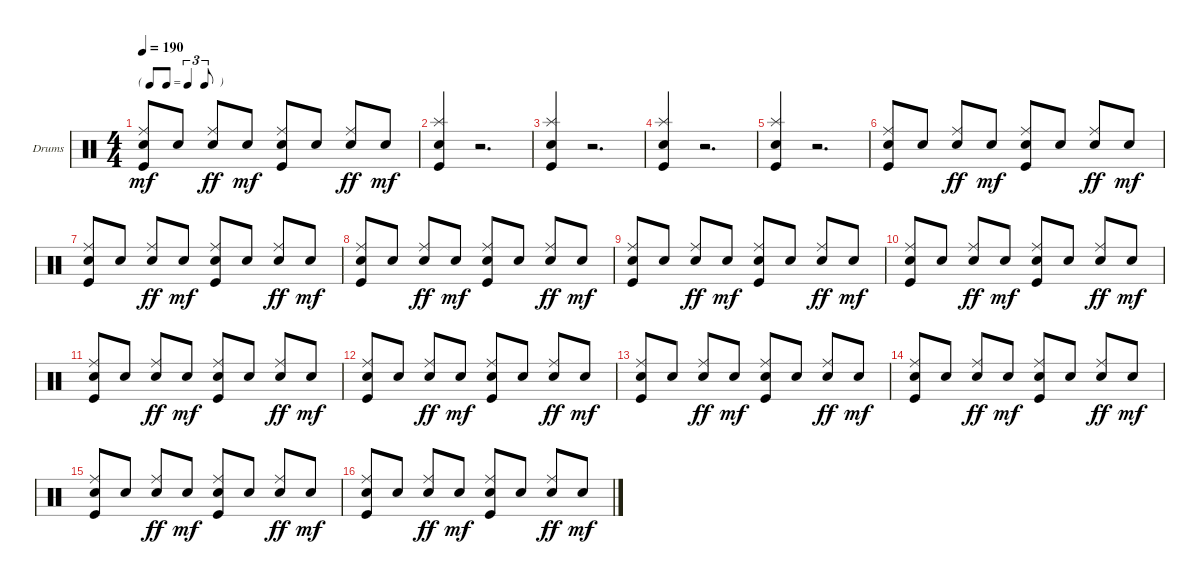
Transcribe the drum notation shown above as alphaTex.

\defaultSystemsLayout 4
\bracketExtendMode groupsimilarinstruments
\firstSystemTrackNameOrientation horizontal
\otherSystemsTrackNameOrientation horizontal
\track ("Drumkit" "Drums") {instrument percussion}
\staff {score}
\articulation defaults
\ts (4 4)
\tf triplet8th
\tempo 190
\clef neutral
\ks c
("Kick (hit)" "Snare (hit) 2" "Ride (middle)").8{dy mf beam invert} "Snare (hit) 2".8 ("Snare (hit) 2" "Ride (middle)").8{dy ff beam invert} "Snare (hit) 2".8{dy mf} ("Kick (hit)" "Snare (hit) 2" "Ride (middle)").8{beam invert} "Snare (hit) 2".8 ("Snare (hit) 2" "Ride (middle)").8{dy ff beam invert} "Snare (hit) 2".8{dy mf} |
("Kick (hit)" "Snare (hit) 2" "Splash (hit)").4{beam invert} r.2{d} |
("Kick (hit)" "Snare (hit) 2" "Splash (hit)").4{beam invert} r.2{d} |
("Kick (hit)" "Snare (hit) 2" "Splash (hit)").4{beam invert} r.2{d} |
("Kick (hit)" "Snare (hit) 2" "Splash (hit)").4{beam invert} r.2{d} |
("Kick (hit)" "Snare (hit) 2" "Ride (middle)").8{beam invert} "Snare (hit) 2".8 ("Snare (hit) 2" "Ride (middle)").8{dy ff beam invert} "Snare (hit) 2".8{dy mf} ("Kick (hit)" "Snare (hit) 2" "Ride (middle)").8{beam invert} "Snare (hit) 2".8 ("Snare (hit) 2" "Ride (middle)").8{dy ff beam invert} "Snare (hit) 2".8{dy mf} |
("Kick (hit)" "Snare (hit) 2" "Ride (middle)").8{beam invert} "Snare (hit) 2".8 ("Snare (hit) 2" "Ride (middle)").8{dy ff beam invert} "Snare (hit) 2".8{dy mf} ("Kick (hit)" "Snare (hit) 2" "Ride (middle)").8{beam invert} "Snare (hit) 2".8 ("Snare (hit) 2" "Ride (middle)").8{dy ff beam invert} "Snare (hit) 2".8{dy mf} |
("Kick (hit)" "Snare (hit) 2" "Ride (middle)").8{beam invert} "Snare (hit) 2".8 ("Snare (hit) 2" "Ride (middle)").8{dy ff beam invert} "Snare (hit) 2".8{dy mf} ("Kick (hit)" "Snare (hit) 2" "Ride (middle)").8{beam invert} "Snare (hit) 2".8 ("Snare (hit) 2" "Ride (middle)").8{dy ff beam invert} "Snare (hit) 2".8{dy mf} |
("Kick (hit)" "Snare (hit) 2" "Ride (middle)").8{beam invert} "Snare (hit) 2".8 ("Snare (hit) 2" "Ride (middle)").8{dy ff beam invert} "Snare (hit) 2".8{dy mf} ("Kick (hit)" "Snare (hit) 2" "Ride (middle)").8{beam invert} "Snare (hit) 2".8 ("Snare (hit) 2" "Ride (middle)").8{dy ff beam invert} "Snare (hit) 2".8{dy mf} |
("Kick (hit)" "Snare (hit) 2" "Ride (middle)").8{beam invert} "Snare (hit) 2".8 ("Snare (hit) 2" "Ride (middle)").8{dy ff beam invert} "Snare (hit) 2".8{dy mf} ("Kick (hit)" "Snare (hit) 2" "Ride (middle)").8{beam invert} "Snare (hit) 2".8 ("Snare (hit) 2" "Ride (middle)").8{dy ff beam invert} "Snare (hit) 2".8{dy mf} |
("Kick (hit)" "Snare (hit) 2" "Ride (middle)").8{beam invert} "Snare (hit) 2".8 ("Snare (hit) 2" "Ride (middle)").8{dy ff beam invert} "Snare (hit) 2".8{dy mf} ("Kick (hit)" "Snare (hit) 2" "Ride (middle)").8{beam invert} "Snare (hit) 2".8 ("Snare (hit) 2" "Ride (middle)").8{dy ff beam invert} "Snare (hit) 2".8{dy mf} |
("Kick (hit)" "Snare (hit) 2" "Ride (middle)").8{beam invert} "Snare (hit) 2".8 ("Snare (hit) 2" "Ride (middle)").8{dy ff beam invert} "Snare (hit) 2".8{dy mf} ("Kick (hit)" "Snare (hit) 2" "Ride (middle)").8{beam invert} "Snare (hit) 2".8 ("Snare (hit) 2" "Ride (middle)").8{dy ff beam invert} "Snare (hit) 2".8{dy mf} |
("Kick (hit)" "Snare (hit) 2" "Ride (middle)").8{beam invert} "Snare (hit) 2".8 ("Snare (hit) 2" "Ride (middle)").8{dy ff beam invert} "Snare (hit) 2".8{dy mf} ("Kick (hit)" "Snare (hit) 2" "Ride (middle)").8{beam invert} "Snare (hit) 2".8 ("Snare (hit) 2" "Ride (middle)").8{dy ff beam invert} "Snare (hit) 2".8{dy mf} |
("Kick (hit)" "Snare (hit) 2" "Ride (middle)").8{beam invert} "Snare (hit) 2".8 ("Snare (hit) 2" "Ride (middle)").8{dy ff beam invert} "Snare (hit) 2".8{dy mf} ("Kick (hit)" "Snare (hit) 2" "Ride (middle)").8{beam invert} "Snare (hit) 2".8 ("Snare (hit) 2" "Ride (middle)").8{dy ff beam invert} "Snare (hit) 2".8{dy mf} |
("Kick (hit)" "Snare (hit) 2" "Ride (middle)").8{beam invert} "Snare (hit) 2".8 ("Snare (hit) 2" "Ride (middle)").8{dy ff beam invert} "Snare (hit) 2".8{dy mf} ("Kick (hit)" "Snare (hit) 2" "Ride (middle)").8{beam invert} "Snare (hit) 2".8 ("Snare (hit) 2" "Ride (middle)").8{dy ff beam invert} "Snare (hit) 2".8{dy mf} |
("Kick (hit)" "Snare (hit) 2" "Ride (middle)").8{beam invert} "Snare (hit) 2".8 ("Snare (hit) 2" "Ride (middle)").8{dy ff beam invert} "Snare (hit) 2".8{dy mf} ("Kick (hit)" "Snare (hit) 2" "Ride (middle)").8{beam invert} "Snare (hit) 2".8 ("Snare (hit) 2" "Ride (middle)").8{dy ff beam invert} "Snare (hit) 2".8{dy mf}
